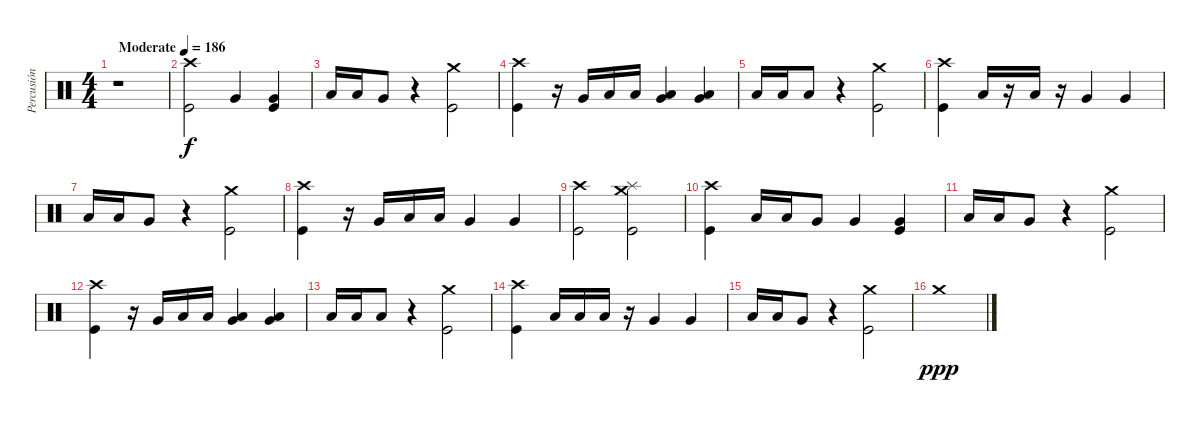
\track ("Percusión" "Percusión") {instrument percussion}
\staff {score}
\articulation defaults
\ts (4 4)
\tempo (186 "Moderate")
\clef neutral
\ks c
r.1{dy f} |
("Crash high (hit)" "Kick (hit)").2 "Very Low Tom (hit)".4 ("Very Low Tom (hit)" "Kick (hit)").4 |
"Low Tom (hit)".16 "Low Tom (hit)".16 "Very Low Tom (hit)".8 r.4 ("Crash medium (hit)" "Kick (hit)").2 |
("Crash high (hit)" "Kick (hit)").4 r.16 "Very Low Tom (hit)".16 "Low Tom (hit)".16 "Low Tom (hit)".16 ("Very Low Tom (hit)" "Low Floor Tom (hit)").4 ("Very Low Tom (hit)" "Low Floor Tom (hit)").4 |
"Low Floor Tom (hit)".16 "Low Floor Tom (hit)".16 "Low Tom (hit)".8 r.4 ("Crash medium (hit)" "Kick (hit)").2 |
("Crash high (hit)" "Kick (hit)").4 "Low Tom (hit)".16 r.16 "Low Tom (hit)".16 r.16 "Very Low Tom (hit)".4 "Very Low Tom (hit)".4 |
"Low Tom (hit)".16 "Low Tom (hit)".16 "Very Low Tom (hit)".8 r.4 ("Crash medium (hit)" "Kick (hit)").2 |
("Crash high (hit)" "Kick (hit)").4 r.16 "Very Low Tom (hit)".16 "Low Tom (hit)".16 "Low Tom (hit)".16 "Very Low Tom (hit)".4 "Very Low Tom (hit)".4 |
("Crash high (hit)" "Kick (hit)").2 ("Splash (hit)" "Crash medium (hit)" "Kick (hit)").2 |
("Crash high (hit)" "Kick (hit)").4 "Low Tom (hit)".16 "Low Tom (hit)".16 "Very Low Tom (hit)".8 "Very Low Tom (hit)".4 ("Very Low Tom (hit)" "Kick (hit)").4 |
"Low Tom (hit)".16 "Low Tom (hit)".16 "Very Low Tom (hit)".8 r.4 ("Crash medium (hit)" "Kick (hit)").2 |
("Crash high (hit)" "Kick (hit)").4 r.16 "Very Low Tom (hit)".16 "Low Tom (hit)".16 "Low Tom (hit)".16 ("Very Low Tom (hit)" "Low Floor Tom (hit)").4 ("Very Low Tom (hit)" "Low Floor Tom (hit)").4 |
"Low Floor Tom (hit)".16 "Low Floor Tom (hit)".16 "Low Tom (hit)".8 r.4 ("Crash medium (hit)" "Kick (hit)").2 |
("Crash high (hit)" "Kick (hit)").4 "Low Tom (hit)".16 "Low Tom (hit)".16 "Low Tom (hit)".16 r.16 "Very Low Tom (hit)".4 "Very Low Tom (hit)".4 |
"Low Tom (hit)".16 "Low Tom (hit)".16 "Very Low Tom (hit)".8 r.4 ("Crash medium (hit)" "Kick (hit)").2 |
"Crash medium (hit)".1{dy ppp}
